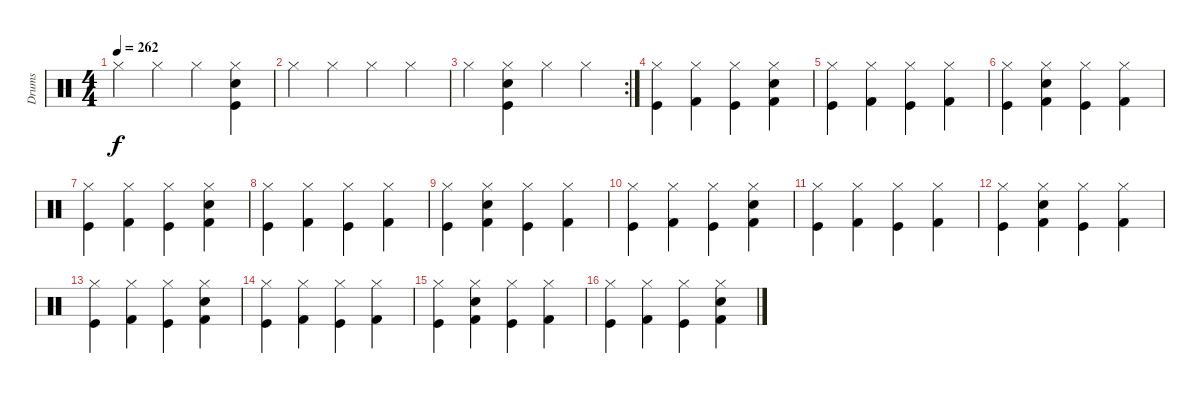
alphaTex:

\track ("Drums" "Drums") {instrument percussion}
\staff {score}
\articulation defaults
\ts (4 4)
\tempo 262
\clef neutral
\ks c "Hi-Hat (closed)".4{dy f} "Hi-Hat (closed)".4 "Hi-Hat (closed)".4
("Electric Snare (hit)" "Hi-Hat (closed)" "Kick (hit)").4 |
"Hi-Hat (closed)".4 "Hi-Hat (closed)".4 "Hi-Hat (closed)".4 "Hi-Hat (closed)".4 |
\rc 2 "Hi-Hat (closed)".4
("Electric Snare (hit)" "Hi-Hat (closed)" "Kick (hit)").4 "Hi-Hat (closed)".4 "Hi-Hat (closed)".4 |
("Hi-Hat (closed)" "Kick (hit)").4 ("Hi-Hat (closed)" "Kick (hit) 2").4 ("Hi-Hat (closed)" "Kick (hit)").4 ("Electric Snare (hit)" "Hi-Hat (closed)" "Kick (hit) 2").4 |
("Hi-Hat (closed)" "Kick (hit)").4 ("Hi-Hat (closed)" "Kick (hit) 2").4 ("Hi-Hat (closed)" "Kick (hit)").4 ("Hi-Hat (closed)" "Kick (hit) 2").4 |
("Hi-Hat (closed)" "Kick (hit)").4 ("Electric Snare (hit)" "Hi-Hat (closed)" "Kick (hit) 2").4 ("Hi-Hat (closed)" "Kick (hit)").4 ("Hi-Hat (closed)" "Kick (hit) 2").4 |
("Hi-Hat (closed)" "Kick (hit)").4 ("Hi-Hat (closed)" "Kick (hit) 2").4 ("Hi-Hat (closed)" "Kick (hit)").4 ("Electric Snare (hit)" "Hi-Hat (closed)" "Kick (hit) 2").4 |
("Hi-Hat (closed)" "Kick (hit)").4 ("Hi-Hat (closed)" "Kick (hit) 2").4 ("Hi-Hat (closed)" "Kick (hit)").4 ("Hi-Hat (closed)" "Kick (hit) 2").4 |
("Hi-Hat (closed)" "Kick (hit)").4 ("Electric Snare (hit)" "Hi-Hat (closed)" "Kick (hit) 2").4 ("Hi-Hat (closed)" "Kick (hit)").4 ("Hi-Hat (closed)" "Kick (hit) 2").4 |
("Hi-Hat (closed)" "Kick (hit)").4 ("Hi-Hat (closed)" "Kick (hit) 2").4 ("Hi-Hat (closed)" "Kick (hit)").4 ("Electric Snare (hit)" "Hi-Hat (closed)" "Kick (hit) 2").4 |
("Hi-Hat (closed)" "Kick (hit)").4 ("Hi-Hat (closed)" "Kick (hit) 2").4 ("Hi-Hat (closed)" "Kick (hit)").4 ("Hi-Hat (closed)" "Kick (hit) 2").4 |
("Hi-Hat (closed)" "Kick (hit)").4 ("Electric Snare (hit)" "Hi-Hat (closed)" "Kick (hit) 2").4 ("Hi-Hat (closed)" "Kick (hit)").4 ("Hi-Hat (closed)" "Kick (hit) 2").4 |
("Hi-Hat (closed)" "Kick (hit)").4 ("Hi-Hat (closed)" "Kick (hit) 2").4 ("Hi-Hat (closed)" "Kick (hit)").4 ("Electric Snare (hit)" "Hi-Hat (closed)" "Kick (hit) 2").4 |
("Hi-Hat (closed)" "Kick (hit)").4 ("Hi-Hat (closed)" "Kick (hit) 2").4 ("Hi-Hat (closed)" "Kick (hit)").4 ("Hi-Hat (closed)" "Kick (hit) 2").4 |
("Hi-Hat (closed)" "Kick (hit)").4 ("Electric Snare (hit)" "Hi-Hat (closed)" "Kick (hit) 2").4 ("Hi-Hat (closed)" "Kick (hit)").4 ("Hi-Hat (closed)" "Kick (hit) 2").4 |
("Hi-Hat (closed)" "Kick (hit)").4 ("Hi-Hat (closed)" "Kick (hit) 2").4 ("Hi-Hat (closed)" "Kick (hit)").4 ("Electric Snare (hit)" "Hi-Hat (closed)" "Kick (hit) 2").4
